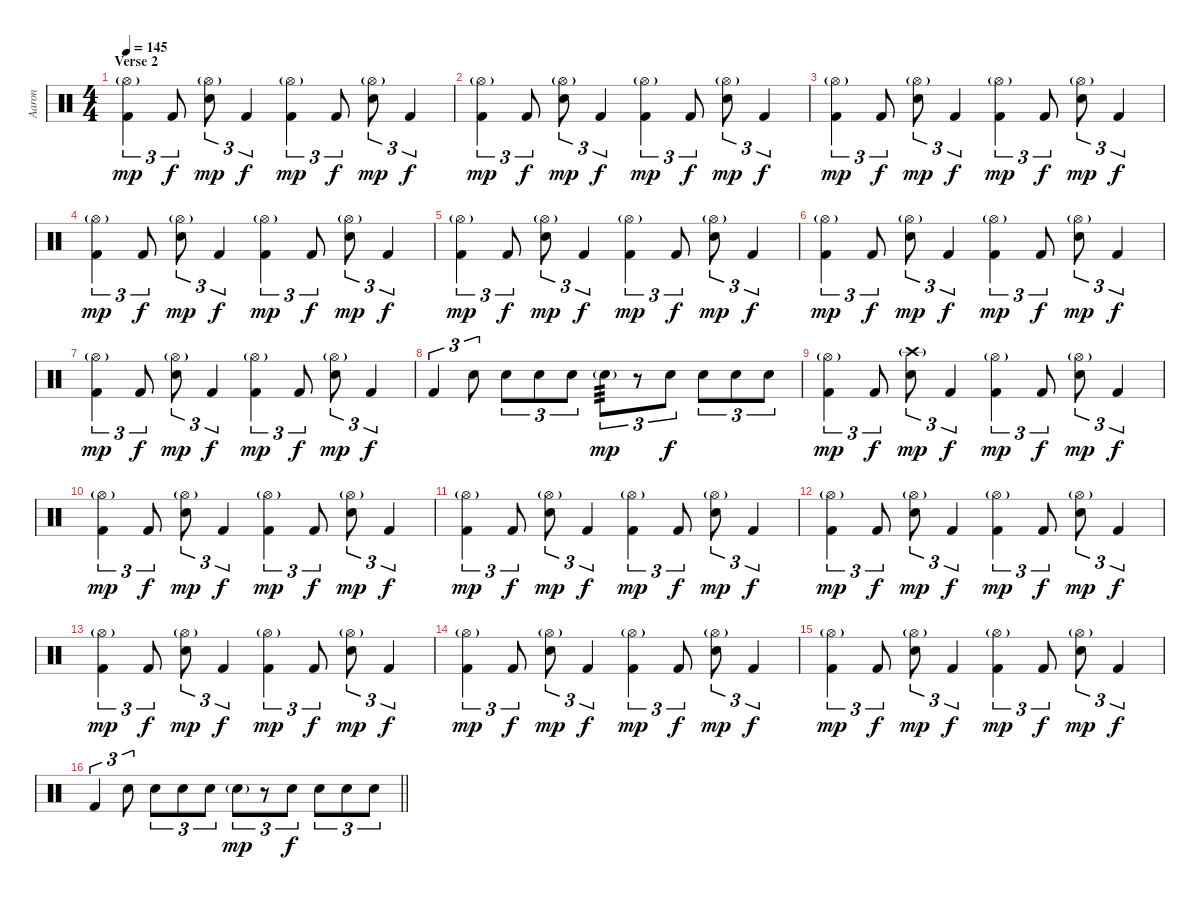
\track ("Aaron" "Aaron") {instrument percussion}
\staff {score}
\articulation defaults
\ts (4 4)
\section ("" "Verse 2")
\tempo 145
\clef neutral
\ks c
("Hi-Hat (open)"{g} "Kick (hit) 2").4{tu (3 2) dy mp} "Kick (hit) 2".8{tu (3 2) dy f} ("Hi-Hat (open)"{g} "Electric Snare (hit)").8{tu (3 2) dy mp} "Kick (hit) 2".4{tu (3 2) dy f} ("Hi-Hat (open)"{g} "Kick (hit) 2").4{tu (3 2) dy mp} "Kick (hit) 2".8{tu (3 2) dy f} ("Hi-Hat (open)"{g} "Electric Snare (hit)").8{tu (3 2) dy mp} "Kick (hit) 2".4{tu (3 2) dy f} |
("Hi-Hat (open)"{g} "Kick (hit) 2").4{tu (3 2) dy mp} "Kick (hit) 2".8{tu (3 2) dy f} ("Hi-Hat (open)"{g} "Electric Snare (hit)").8{tu (3 2) dy mp} "Kick (hit) 2".4{tu (3 2) dy f} ("Hi-Hat (open)"{g} "Kick (hit) 2").4{tu (3 2) dy mp} "Kick (hit) 2".8{tu (3 2) dy f} ("Hi-Hat (open)"{g} "Electric Snare (hit)").8{tu (3 2) dy mp} "Kick (hit) 2".4{tu (3 2) dy f} |
("Hi-Hat (open)"{g} "Kick (hit) 2").4{tu (3 2) dy mp} "Kick (hit) 2".8{tu (3 2) dy f} ("Hi-Hat (open)"{g} "Electric Snare (hit)").8{tu (3 2) dy mp} "Kick (hit) 2".4{tu (3 2) dy f} ("Hi-Hat (open)"{g} "Kick (hit) 2").4{tu (3 2) dy mp} "Kick (hit) 2".8{tu (3 2) dy f} ("Hi-Hat (open)"{g} "Electric Snare (hit)").8{tu (3 2) dy mp} "Kick (hit) 2".4{tu (3 2) dy f} |
("Hi-Hat (open)"{g} "Kick (hit) 2").4{tu (3 2) dy mp} "Kick (hit) 2".8{tu (3 2) dy f} ("Hi-Hat (open)"{g} "Electric Snare (hit)").8{tu (3 2) dy mp} "Kick (hit) 2".4{tu (3 2) dy f} ("Hi-Hat (open)"{g} "Kick (hit) 2").4{tu (3 2) dy mp} "Kick (hit) 2".8{tu (3 2) dy f} ("Hi-Hat (open)"{g} "Electric Snare (hit)").8{tu (3 2) dy mp} "Kick (hit) 2".4{tu (3 2) dy f} |
("Hi-Hat (open)"{g} "Kick (hit) 2").4{tu (3 2) dy mp} "Kick (hit) 2".8{tu (3 2) dy f} ("Hi-Hat (open)"{g} "Electric Snare (hit)").8{tu (3 2) dy mp} "Kick (hit) 2".4{tu (3 2) dy f} ("Hi-Hat (open)"{g} "Kick (hit) 2").4{tu (3 2) dy mp} "Kick (hit) 2".8{tu (3 2) dy f} ("Hi-Hat (open)"{g} "Electric Snare (hit)").8{tu (3 2) dy mp} "Kick (hit) 2".4{tu (3 2) dy f} |
("Hi-Hat (open)"{g} "Kick (hit) 2").4{tu (3 2) dy mp} "Kick (hit) 2".8{tu (3 2) dy f} ("Hi-Hat (open)"{g} "Electric Snare (hit)").8{tu (3 2) dy mp} "Kick (hit) 2".4{tu (3 2) dy f} ("Hi-Hat (open)"{g} "Kick (hit) 2").4{tu (3 2) dy mp} "Kick (hit) 2".8{tu (3 2) dy f} ("Hi-Hat (open)"{g} "Electric Snare (hit)").8{tu (3 2) dy mp} "Kick (hit) 2".4{tu (3 2) dy f} |
("Hi-Hat (open)"{g} "Kick (hit) 2").4{tu (3 2) dy mp} "Kick (hit) 2".8{tu (3 2) dy f} ("Hi-Hat (open)"{g} "Electric Snare (hit)").8{tu (3 2) dy mp} "Kick (hit) 2".4{tu (3 2) dy f} ("Hi-Hat (open)"{g} "Kick (hit) 2").4{tu (3 2) dy mp} "Kick (hit) 2".8{tu (3 2) dy f} ("Hi-Hat (open)"{g} "Electric Snare (hit)").8{tu (3 2) dy mp} "Kick (hit) 2".4{tu (3 2) dy f} |
"Kick (hit) 2".4{tu (3 2)} "Electric Snare (hit)".8{tu (3 2)} "Electric Snare (hit)".8{tu (3 2)} "Electric Snare (hit)".8{tu (3 2)} "Electric Snare (hit)".8{tu (3 2)} "Electric Snare (hit)"{g}.8{tu (3 2) tp 3 dy mp} r.8{tu (3 2)} "Electric Snare (hit)".8{tu (3 2) dy f} "Electric Snare (hit)".8{tu (3 2)} "Electric Snare (hit)".8{tu (3 2)} "Electric Snare (hit)".8{tu (3 2)} |
("Hi-Hat (open)"{g} "Kick (hit) 2").4{tu (3 2) dy mp} "Kick (hit) 2".8{tu (3 2) dy f} ("Crash high (hit)"{g} "Electric Snare (hit)").8{tu (3 2) dy mp} "Kick (hit) 2".4{tu (3 2) dy f} ("Hi-Hat (open)"{g} "Kick (hit) 2").4{tu (3 2) dy mp} "Kick (hit) 2".8{tu (3 2) dy f} ("Hi-Hat (open)"{g} "Electric Snare (hit)").8{tu (3 2) dy mp} "Kick (hit) 2".4{tu (3 2) dy f} |
("Hi-Hat (open)"{g} "Kick (hit) 2").4{tu (3 2) dy mp} "Kick (hit) 2".8{tu (3 2) dy f} ("Hi-Hat (open)"{g} "Electric Snare (hit)").8{tu (3 2) dy mp} "Kick (hit) 2".4{tu (3 2) dy f} ("Hi-Hat (open)"{g} "Kick (hit) 2").4{tu (3 2) dy mp} "Kick (hit) 2".8{tu (3 2) dy f} ("Hi-Hat (open)"{g} "Electric Snare (hit)").8{tu (3 2) dy mp} "Kick (hit) 2".4{tu (3 2) dy f} |
("Hi-Hat (open)"{g} "Kick (hit) 2").4{tu (3 2) dy mp} "Kick (hit) 2".8{tu (3 2) dy f} ("Hi-Hat (open)"{g} "Electric Snare (hit)").8{tu (3 2) dy mp} "Kick (hit) 2".4{tu (3 2) dy f} ("Hi-Hat (open)"{g} "Kick (hit) 2").4{tu (3 2) dy mp} "Kick (hit) 2".8{tu (3 2) dy f} ("Hi-Hat (open)"{g} "Electric Snare (hit)").8{tu (3 2) dy mp} "Kick (hit) 2".4{tu (3 2) dy f} |
("Hi-Hat (open)"{g} "Kick (hit) 2").4{tu (3 2) dy mp} "Kick (hit) 2".8{tu (3 2) dy f} ("Hi-Hat (open)"{g} "Electric Snare (hit)").8{tu (3 2) dy mp} "Kick (hit) 2".4{tu (3 2) dy f} ("Hi-Hat (open)"{g} "Kick (hit) 2").4{tu (3 2) dy mp} "Kick (hit) 2".8{tu (3 2) dy f} ("Hi-Hat (open)"{g} "Electric Snare (hit)").8{tu (3 2) dy mp} "Kick (hit) 2".4{tu (3 2) dy f} |
("Hi-Hat (open)"{g} "Kick (hit) 2").4{tu (3 2) dy mp} "Kick (hit) 2".8{tu (3 2) dy f} ("Hi-Hat (open)"{g} "Electric Snare (hit)").8{tu (3 2) dy mp} "Kick (hit) 2".4{tu (3 2) dy f} ("Hi-Hat (open)"{g} "Kick (hit) 2").4{tu (3 2) dy mp} "Kick (hit) 2".8{tu (3 2) dy f} ("Hi-Hat (open)"{g} "Electric Snare (hit)").8{tu (3 2) dy mp} "Kick (hit) 2".4{tu (3 2) dy f} |
("Hi-Hat (open)"{g} "Kick (hit) 2").4{tu (3 2) dy mp} "Kick (hit) 2".8{tu (3 2) dy f} ("Hi-Hat (open)"{g} "Electric Snare (hit)").8{tu (3 2) dy mp} "Kick (hit) 2".4{tu (3 2) dy f} ("Hi-Hat (open)"{g} "Kick (hit) 2").4{tu (3 2) dy mp} "Kick (hit) 2".8{tu (3 2) dy f} ("Hi-Hat (open)"{g} "Electric Snare (hit)").8{tu (3 2) dy mp} "Kick (hit) 2".4{tu (3 2) dy f} |
("Hi-Hat (open)"{g} "Kick (hit) 2").4{tu (3 2) dy mp} "Kick (hit) 2".8{tu (3 2) dy f} ("Hi-Hat (open)"{g} "Electric Snare (hit)").8{tu (3 2) dy mp} "Kick (hit) 2".4{tu (3 2) dy f} ("Hi-Hat (open)"{g} "Kick (hit) 2").4{tu (3 2) dy mp} "Kick (hit) 2".8{tu (3 2) dy f} ("Hi-Hat (open)"{g} "Electric Snare (hit)").8{tu (3 2) dy mp} "Kick (hit) 2".4{tu (3 2) dy f} |
\barLineRight lightlight "Kick (hit) 2".4{tu (3 2)} "Electric Snare (hit)".8{tu (3 2)} "Electric Snare (hit)".8{tu (3 2)} "Electric Snare (hit)".8{tu (3 2)} "Electric Snare (hit)".8{tu (3 2)} "Electric Snare (hit)"{g}.8{tu (3 2) dy mp}
r.8{tu (3 2)} "Electric Snare (hit)".8{tu (3 2) dy f} "Electric Snare (hit)".8{tu (3 2)} "Electric Snare (hit)".8{tu (3 2)} "Electric Snare (hit)".8{tu (3 2)}
